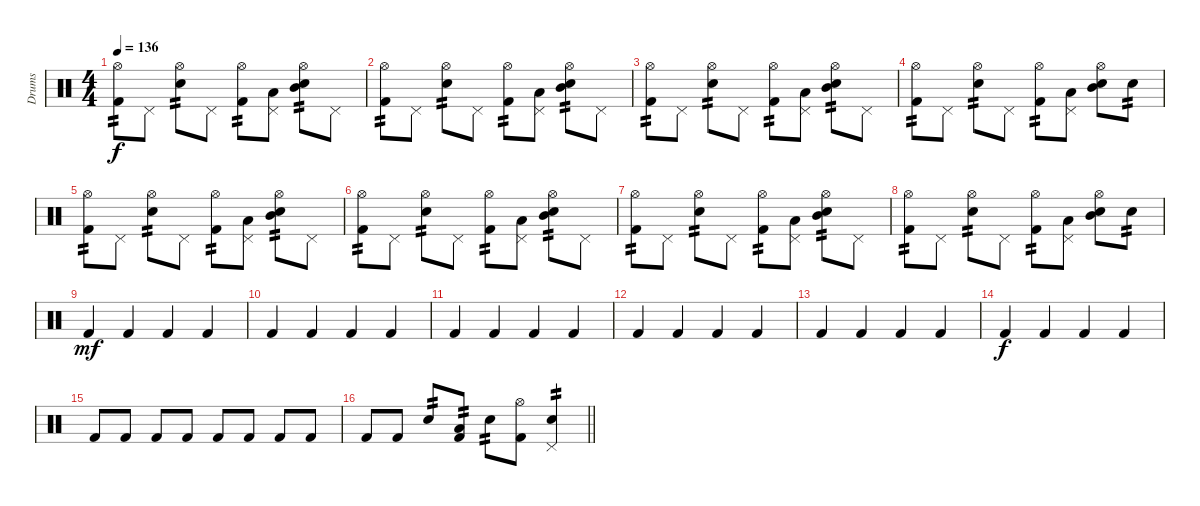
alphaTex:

\track ("Drums" "Drums") {instrument percussion}
\staff {score}
\articulation defaults
\ts (4 4)
\tempo 136
\clef neutral
\ks c
("Hi-Hat (open)" "Kick (hit) 2").8{tp 2 dy f} "Pedal Hi-Hat (hit)".8 ("Hi-Hat (open)" "Snare (hit) 2").8{tp 2} "Pedal Hi-Hat (hit)".8 ("Hi-Hat (open)" "Kick (hit) 2").8{tp 2} ("Low Tom (hit)" "Pedal Hi-Hat (hit)").8 ("Mid Tom (hit)" "Hi-Hat (open)" "Snare (hit) 2").8{tp 2} "Pedal Hi-Hat (hit)".8 |
("Hi-Hat (open)" "Kick (hit) 2").8{tp 2} "Pedal Hi-Hat (hit)".8 ("Hi-Hat (open)" "Snare (hit) 2").8{tp 2} "Pedal Hi-Hat (hit)".8 ("Hi-Hat (open)" "Kick (hit) 2").8{tp 2} ("Low Tom (hit)" "Pedal Hi-Hat (hit)").8 ("Mid Tom (hit)" "Hi-Hat (open)" "Snare (hit) 2").8{tp 2} "Pedal Hi-Hat (hit)".8 |
("Hi-Hat (open)" "Kick (hit) 2").8{tp 2} "Pedal Hi-Hat (hit)".8 ("Hi-Hat (open)" "Snare (hit) 2").8{tp 2} "Pedal Hi-Hat (hit)".8 ("Hi-Hat (open)" "Kick (hit) 2").8{tp 2} ("Low Tom (hit)" "Pedal Hi-Hat (hit)").8 ("Mid Tom (hit)" "Hi-Hat (open)" "Snare (hit) 2").8{tp 2} "Pedal Hi-Hat (hit)".8 |
("Hi-Hat (open)" "Kick (hit) 2").8{tp 2} "Pedal Hi-Hat (hit)".8 ("Hi-Hat (open)" "Snare (hit) 2").8{tp 2} "Pedal Hi-Hat (hit)".8 ("Hi-Hat (open)" "Kick (hit) 2").8{tp 2} ("Low Tom (hit)" "Pedal Hi-Hat (hit)").8 ("Mid Tom (hit)" "Hi-Hat (open)" "Snare (hit) 2").8 "Snare (hit) 2".8{tp 2} |
("Hi-Hat (open)" "Kick (hit) 2").8{tp 2} "Pedal Hi-Hat (hit)".8 ("Hi-Hat (open)" "Snare (hit) 2").8{tp 2} "Pedal Hi-Hat (hit)".8 ("Hi-Hat (open)" "Kick (hit) 2").8{tp 2} ("Low Tom (hit)" "Pedal Hi-Hat (hit)").8 ("Mid Tom (hit)" "Hi-Hat (open)" "Snare (hit) 2").8{tp 2} "Pedal Hi-Hat (hit)".8 |
("Hi-Hat (open)" "Kick (hit) 2").8{tp 2} "Pedal Hi-Hat (hit)".8 ("Hi-Hat (open)" "Snare (hit) 2").8{tp 2} "Pedal Hi-Hat (hit)".8 ("Hi-Hat (open)" "Kick (hit) 2").8{tp 2} ("Low Tom (hit)" "Pedal Hi-Hat (hit)").8 ("Mid Tom (hit)" "Hi-Hat (open)" "Snare (hit) 2").8{tp 2} "Pedal Hi-Hat (hit)".8 |
("Hi-Hat (open)" "Kick (hit) 2").8{tp 2} "Pedal Hi-Hat (hit)".8 ("Hi-Hat (open)" "Snare (hit) 2").8{tp 2} "Pedal Hi-Hat (hit)".8 ("Hi-Hat (open)" "Kick (hit) 2").8{tp 2} ("Low Tom (hit)" "Pedal Hi-Hat (hit)").8 ("Mid Tom (hit)" "Hi-Hat (open)" "Snare (hit) 2").8{tp 2} "Pedal Hi-Hat (hit)".8 |
("Hi-Hat (open)" "Kick (hit) 2").8{tp 2} "Pedal Hi-Hat (hit)".8 ("Hi-Hat (open)" "Snare (hit) 2").8{tp 2} "Pedal Hi-Hat (hit)".8 ("Hi-Hat (open)" "Kick (hit) 2").8{tp 2} ("Low Tom (hit)" "Pedal Hi-Hat (hit)").8 ("Mid Tom (hit)" "Hi-Hat (open)" "Snare (hit) 2").8 "Snare (hit) 2".8{tp 2} |
"Kick (hit) 2".4{dy mf} "Kick (hit) 2".4 "Kick (hit) 2".4 "Kick (hit) 2".4 |
"Kick (hit) 2".4 "Kick (hit) 2".4 "Kick (hit) 2".4 "Kick (hit) 2".4 |
"Kick (hit) 2".4 "Kick (hit) 2".4 "Kick (hit) 2".4 "Kick (hit) 2".4 |
"Kick (hit) 2".4 "Kick (hit) 2".4 "Kick (hit) 2".4 "Kick (hit) 2".4 |
"Kick (hit) 2".4 "Kick (hit) 2".4 "Kick (hit) 2".4 "Kick (hit) 2".4 |
"Kick (hit) 2".4{dy f} "Kick (hit) 2".4 "Kick (hit) 2".4 "Kick (hit) 2".4 |
"Kick (hit) 2".8 "Kick (hit) 2".8 "Kick (hit) 2".8 "Kick (hit) 2".8 "Kick (hit) 2".8 "Kick (hit) 2".8 "Kick (hit) 2".8 "Kick (hit) 2".8 |
\barLineRight lightlight "Kick (hit) 2".8 "Kick (hit) 2".8 "Snare (hit) 2".8{tp 2}
("Low Tom (hit)" "Kick (hit) 2").8{tp 2} "Snare (hit) 2".8{tp 2} ("Hi-Hat (open)" "Kick (hit) 2").8 ("Pedal Hi-Hat (hit)" "Snare (hit) 2").4{tp 2}
